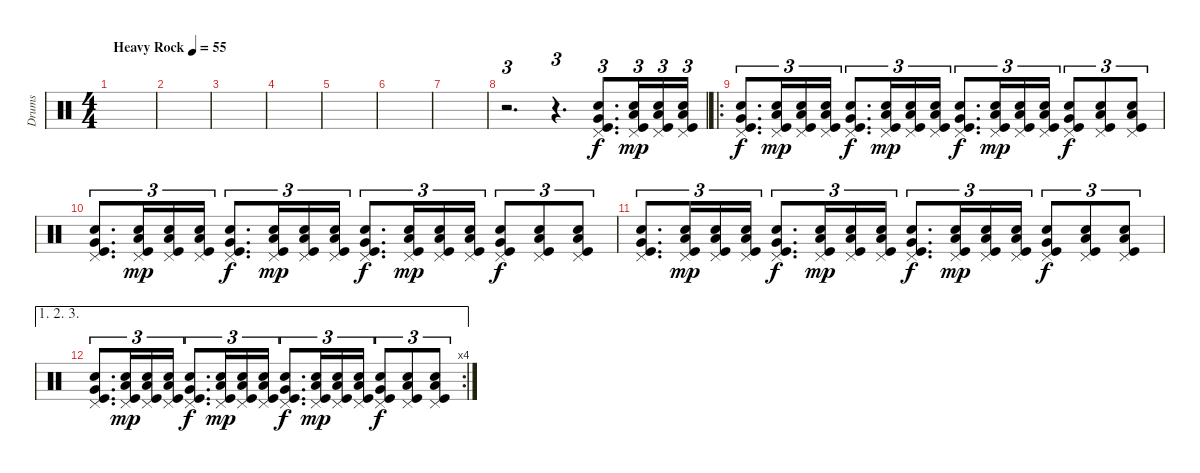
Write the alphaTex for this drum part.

\track ("Drums" "Drums") {instrument percussion}
\staff {score}
\articulation defaults
\ts (4 4)
\tempo (55 "Heavy Rock")
\clef neutral
\ks c
|
|
|
|
|
|
|
r.2{d tu (3 2)} r.4{d tu (3 2)} ("Pedal Hi-Hat (hit)" "Snare (hit) 2" "Very Low Tom (hit)" "Kick (hit)").8{d tu (3 2)} ("Pedal Hi-Hat (hit)" "Snare (hit) 2" "Low Floor Tom (hit)" "Kick (hit)").16{tu (3 2) dy mp} ("Pedal Hi-Hat (hit)" "Snare (hit) 2" "Low Floor Tom (hit)" "Kick (hit)").16{tu (3 2)} ("Pedal Hi-Hat (hit)" "Snare (hit) 2" "Low Floor Tom (hit)" "Kick (hit)").16{tu (3 2)} |
\ro
("Pedal Hi-Hat (hit)" "Snare (hit) 2" "Very Low Tom (hit)" "Kick (hit)").8{d tu (3 2) dy f} ("Pedal Hi-Hat (hit)" "Snare (hit) 2" "Low Floor Tom (hit)" "Kick (hit)").16{tu (3 2) dy mp} ("Pedal Hi-Hat (hit)" "Snare (hit) 2" "Low Floor Tom (hit)" "Kick (hit)").16{tu (3 2)} ("Pedal Hi-Hat (hit)" "Snare (hit) 2" "Low Floor Tom (hit)" "Kick (hit)").16{tu (3 2)} ("Pedal Hi-Hat (hit)" "Snare (hit) 2" "Very Low Tom (hit)" "Kick (hit)").8{d tu (3 2) dy f} ("Pedal Hi-Hat (hit)" "Snare (hit) 2" "Low Floor Tom (hit)" "Kick (hit)").16{tu (3 2) dy mp} ("Pedal Hi-Hat (hit)" "Snare (hit) 2" "Low Floor Tom (hit)" "Kick (hit)").16{tu (3 2)} ("Pedal Hi-Hat (hit)" "Snare (hit) 2" "Low Floor Tom (hit)" "Kick (hit)").16{tu (3 2)} ("Pedal Hi-Hat (hit)" "Snare (hit) 2" "Very Low Tom (hit)" "Kick (hit)").8{d tu (3 2) dy f} ("Pedal Hi-Hat (hit)" "Snare (hit) 2" "Low Floor Tom (hit)" "Kick (hit)").16{tu (3 2) dy mp} ("Pedal Hi-Hat (hit)" "Snare (hit) 2" "Low Floor Tom (hit)" "Kick (hit)").16{tu (3 2)} ("Pedal Hi-Hat (hit)" "Snare (hit) 2" "Low Floor Tom (hit)" "Kick (hit)").16{tu (3 2)} ("Pedal Hi-Hat (hit)" "Snare (hit) 2" "Very Low Tom (hit)" "Kick (hit)").8{tu (3 2) dy f} ("Pedal Hi-Hat (hit)" "Snare (hit) 2" "Low Floor Tom (hit)" "Kick (hit)").8{tu (3 2)} ("Pedal Hi-Hat (hit)" "Snare (hit) 2" "Low Floor Tom (hit)" "Kick (hit)").8{tu (3 2)} |
("Pedal Hi-Hat (hit)" "Snare (hit) 2" "Very Low Tom (hit)" "Kick (hit)").8{d tu (3 2)} ("Pedal Hi-Hat (hit)" "Snare (hit) 2" "Low Floor Tom (hit)" "Kick (hit)").16{tu (3 2) dy mp} ("Pedal Hi-Hat (hit)" "Snare (hit) 2" "Low Floor Tom (hit)" "Kick (hit)").16{tu (3 2)} ("Pedal Hi-Hat (hit)" "Snare (hit) 2" "Low Floor Tom (hit)" "Kick (hit)").16{tu (3 2)} ("Pedal Hi-Hat (hit)" "Snare (hit) 2" "Very Low Tom (hit)" "Kick (hit)").8{d tu (3 2) dy f} ("Pedal Hi-Hat (hit)" "Snare (hit) 2" "Low Floor Tom (hit)" "Kick (hit)").16{tu (3 2) dy mp} ("Pedal Hi-Hat (hit)" "Snare (hit) 2" "Low Floor Tom (hit)" "Kick (hit)").16{tu (3 2)} ("Pedal Hi-Hat (hit)" "Snare (hit) 2" "Low Floor Tom (hit)" "Kick (hit)").16{tu (3 2)} ("Pedal Hi-Hat (hit)" "Snare (hit) 2" "Very Low Tom (hit)" "Kick (hit)").8{d tu (3 2) dy f} ("Pedal Hi-Hat (hit)" "Snare (hit) 2" "Low Floor Tom (hit)" "Kick (hit)").16{tu (3 2) dy mp} ("Pedal Hi-Hat (hit)" "Snare (hit) 2" "Low Floor Tom (hit)" "Kick (hit)").16{tu (3 2)} ("Pedal Hi-Hat (hit)" "Snare (hit) 2" "Low Floor Tom (hit)" "Kick (hit)").16{tu (3 2)} ("Pedal Hi-Hat (hit)" "Snare (hit) 2" "Very Low Tom (hit)" "Kick (hit)").8{tu (3 2) dy f} ("Pedal Hi-Hat (hit)" "Snare (hit) 2" "Low Floor Tom (hit)" "Kick (hit)").8{tu (3 2)} ("Pedal Hi-Hat (hit)" "Snare (hit) 2" "Low Floor Tom (hit)" "Kick (hit)").8{tu (3 2)} |
("Pedal Hi-Hat (hit)" "Snare (hit) 2" "Very Low Tom (hit)" "Kick (hit)").8{d tu (3 2)} ("Pedal Hi-Hat (hit)" "Snare (hit) 2" "Low Floor Tom (hit)" "Kick (hit)").16{tu (3 2) dy mp} ("Pedal Hi-Hat (hit)" "Snare (hit) 2" "Low Floor Tom (hit)" "Kick (hit)").16{tu (3 2)} ("Pedal Hi-Hat (hit)" "Snare (hit) 2" "Low Floor Tom (hit)" "Kick (hit)").16{tu (3 2)} ("Pedal Hi-Hat (hit)" "Snare (hit) 2" "Very Low Tom (hit)" "Kick (hit)").8{d tu (3 2) dy f} ("Pedal Hi-Hat (hit)" "Snare (hit) 2" "Low Floor Tom (hit)" "Kick (hit)").16{tu (3 2) dy mp} ("Pedal Hi-Hat (hit)" "Snare (hit) 2" "Low Floor Tom (hit)" "Kick (hit)").16{tu (3 2)} ("Pedal Hi-Hat (hit)" "Snare (hit) 2" "Low Floor Tom (hit)" "Kick (hit)").16{tu (3 2)} ("Pedal Hi-Hat (hit)" "Snare (hit) 2" "Very Low Tom (hit)" "Kick (hit)").8{d tu (3 2) dy f} ("Pedal Hi-Hat (hit)" "Snare (hit) 2" "Low Floor Tom (hit)" "Kick (hit)").16{tu (3 2) dy mp} ("Pedal Hi-Hat (hit)" "Snare (hit) 2" "Low Floor Tom (hit)" "Kick (hit)").16{tu (3 2)} ("Pedal Hi-Hat (hit)" "Snare (hit) 2" "Low Floor Tom (hit)" "Kick (hit)").16{tu (3 2)} ("Pedal Hi-Hat (hit)" "Snare (hit) 2" "Very Low Tom (hit)" "Kick (hit)").8{tu (3 2) dy f} ("Pedal Hi-Hat (hit)" "Snare (hit) 2" "Low Floor Tom (hit)" "Kick (hit)").8{tu (3 2)} ("Pedal Hi-Hat (hit)" "Snare (hit) 2" "Low Floor Tom (hit)" "Kick (hit)").8{tu (3 2)} |
\ae (1 2 3)
\rc 4
("Pedal Hi-Hat (hit)" "Snare (hit) 2" "Very Low Tom (hit)" "Kick (hit)").8{d tu (3 2)} ("Pedal Hi-Hat (hit)" "Snare (hit) 2" "Low Floor Tom (hit)" "Kick (hit)").16{tu (3 2) dy mp} ("Pedal Hi-Hat (hit)" "Snare (hit) 2" "Low Floor Tom (hit)" "Kick (hit)").16{tu (3 2)} ("Pedal Hi-Hat (hit)" "Snare (hit) 2" "Low Floor Tom (hit)" "Kick (hit)").16{tu (3 2)} ("Pedal Hi-Hat (hit)" "Snare (hit) 2" "Very Low Tom (hit)" "Kick (hit)").8{d tu (3 2) dy f} ("Pedal Hi-Hat (hit)" "Snare (hit) 2" "Low Floor Tom (hit)" "Kick (hit)").16{tu (3 2) dy mp} ("Pedal Hi-Hat (hit)" "Snare (hit) 2" "Low Floor Tom (hit)" "Kick (hit)").16{tu (3 2)} ("Pedal Hi-Hat (hit)" "Snare (hit) 2" "Low Floor Tom (hit)" "Kick (hit)").16{tu (3 2)} ("Pedal Hi-Hat (hit)" "Snare (hit) 2" "Very Low Tom (hit)" "Kick (hit)").8{d tu (3 2) dy f} ("Pedal Hi-Hat (hit)" "Snare (hit) 2" "Low Floor Tom (hit)" "Kick (hit)").16{tu (3 2) dy mp} ("Pedal Hi-Hat (hit)" "Snare (hit) 2" "Low Floor Tom (hit)" "Kick (hit)").16{tu (3 2)} ("Pedal Hi-Hat (hit)" "Snare (hit) 2" "Low Floor Tom (hit)" "Kick (hit)").16{tu (3 2)} ("Pedal Hi-Hat (hit)" "Snare (hit) 2" "Very Low Tom (hit)" "Kick (hit)").8{tu (3 2) dy f} ("Pedal Hi-Hat (hit)" "Snare (hit) 2" "Low Floor Tom (hit)" "Kick (hit)").8{tu (3 2)} ("Pedal Hi-Hat (hit)" "Snare (hit) 2" "Low Floor Tom (hit)" "Kick (hit)").8{tu (3 2)}
